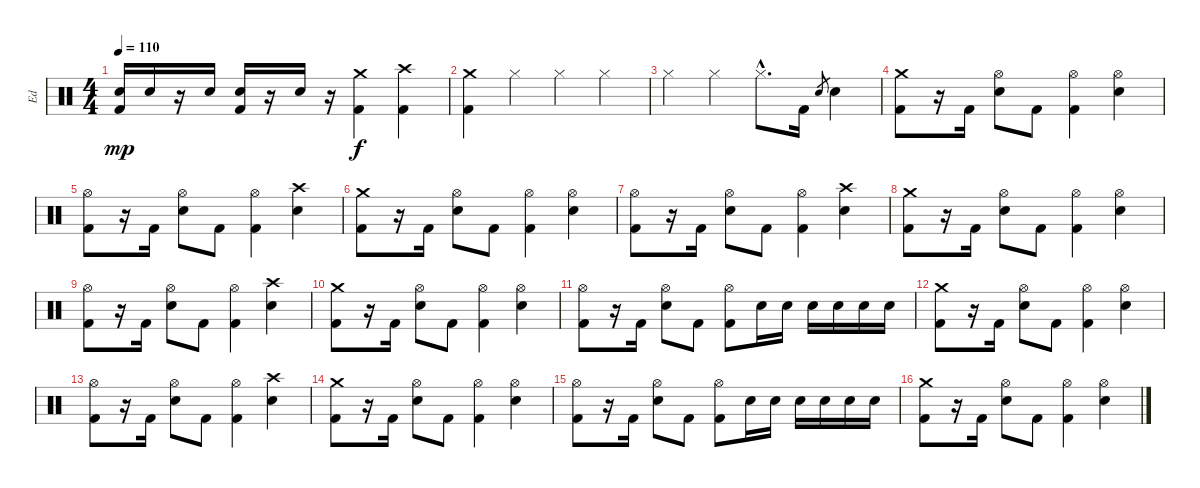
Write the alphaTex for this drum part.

\track ("Ed" "Ed") {instrument percussion}
\staff {score}
\articulation defaults
\ts (4 4)
\tempo 110
\clef neutral
\ks c
("Electric Snare (hit)" "Kick (hit) 2").16{dy mp} "Electric Snare (hit)".16 r.16 "Electric Snare (hit)".16 ("Electric Snare (hit)" "Kick (hit) 2").16 r.16 "Electric Snare (hit)".16 r.16 ("Crash medium (hit)" "Kick (hit) 2").4{dy f} ("Crash high (hit)" "Kick (hit) 2").4 |
("Crash medium (hit)" "Kick (hit) 2").4 "Hi-Hat (closed)".4 "Hi-Hat (closed)".4 "Hi-Hat (closed)".4 |
"Hi-Hat (closed)".4 "Hi-Hat (closed)".4 "Hi-Hat (closed)"{hac}.8{d} "Kick (hit) 2".16 "Electric Snare (hit)".8{gr} "Electric Snare (hit)".4 |
("Crash medium (hit)" "Kick (hit) 2").8 r.16 "Kick (hit) 2".16 ("Hi-Hat (open)" "Electric Snare (hit)").8 "Kick (hit) 2".8 ("Hi-Hat (open)" "Kick (hit) 2").4 ("Hi-Hat (open)" "Electric Snare (hit)").4 |
("Hi-Hat (open)" "Kick (hit) 2").8 r.16 "Kick (hit) 2".16 ("Hi-Hat (open)" "Electric Snare (hit)").8 "Kick (hit) 2".8 ("Hi-Hat (open)" "Kick (hit) 2").4 ("Crash high (hit)" "Electric Snare (hit)").4 |
("Crash medium (hit)" "Kick (hit) 2").8 r.16 "Kick (hit) 2".16 ("Hi-Hat (open)" "Electric Snare (hit)").8 "Kick (hit) 2".8 ("Hi-Hat (open)" "Kick (hit) 2").4 ("Hi-Hat (open)" "Electric Snare (hit)").4 |
("Hi-Hat (open)" "Kick (hit) 2").8 r.16 "Kick (hit) 2".16 ("Hi-Hat (open)" "Electric Snare (hit)").8 "Kick (hit) 2".8 ("Hi-Hat (open)" "Kick (hit) 2").4 ("Crash high (hit)" "Electric Snare (hit)").4 |
("Crash medium (hit)" "Kick (hit) 2").8 r.16 "Kick (hit) 2".16 ("Hi-Hat (open)" "Electric Snare (hit)").8 "Kick (hit) 2".8 ("Hi-Hat (open)" "Kick (hit) 2").4 ("Hi-Hat (open)" "Electric Snare (hit)").4 |
("Hi-Hat (open)" "Kick (hit) 2").8 r.16 "Kick (hit) 2".16 ("Hi-Hat (open)" "Electric Snare (hit)").8 "Kick (hit) 2".8 ("Hi-Hat (open)" "Kick (hit) 2").4 ("Crash high (hit)" "Electric Snare (hit)").4 |
("Crash medium (hit)" "Kick (hit) 2").8 r.16 "Kick (hit) 2".16 ("Hi-Hat (open)" "Electric Snare (hit)").8 "Kick (hit) 2".8 ("Hi-Hat (open)" "Kick (hit) 2").4 ("Hi-Hat (open)" "Electric Snare (hit)").4 |
("Hi-Hat (open)" "Kick (hit) 2").8 r.16 "Kick (hit) 2".16 ("Hi-Hat (open)" "Electric Snare (hit)").8 "Kick (hit) 2".8 ("Hi-Hat (open)" "Kick (hit) 2").8 "Electric Snare (hit)".16 "Electric Snare (hit)".16 "Electric Snare (hit)".16 "Electric Snare (hit)".16 "Electric Snare (hit)".16 "Electric Snare (hit)".16 |
("Crash medium (hit)" "Kick (hit) 2").8 r.16 "Kick (hit) 2".16 ("Hi-Hat (open)" "Electric Snare (hit)").8 "Kick (hit) 2".8 ("Hi-Hat (open)" "Kick (hit) 2").4 ("Hi-Hat (open)" "Electric Snare (hit)").4 |
("Hi-Hat (open)" "Kick (hit) 2").8 r.16 "Kick (hit) 2".16 ("Hi-Hat (open)" "Electric Snare (hit)").8 "Kick (hit) 2".8 ("Hi-Hat (open)" "Kick (hit) 2").4 ("Crash high (hit)" "Electric Snare (hit)").4 |
("Crash medium (hit)" "Kick (hit) 2").8 r.16 "Kick (hit) 2".16 ("Hi-Hat (open)" "Electric Snare (hit)").8 "Kick (hit) 2".8 ("Hi-Hat (open)" "Kick (hit) 2").4 ("Hi-Hat (open)" "Electric Snare (hit)").4 |
("Hi-Hat (open)" "Kick (hit) 2").8 r.16 "Kick (hit) 2".16 ("Hi-Hat (open)" "Electric Snare (hit)").8 "Kick (hit) 2".8 ("Hi-Hat (open)" "Kick (hit) 2").8 "Electric Snare (hit)".16 "Electric Snare (hit)".16 "Electric Snare (hit)".16 "Electric Snare (hit)".16 "Electric Snare (hit)".16 "Electric Snare (hit)".16 |
("Crash medium (hit)" "Kick (hit) 2").8 r.16 "Kick (hit) 2".16 ("Hi-Hat (open)" "Electric Snare (hit)").8 "Kick (hit) 2".8 ("Hi-Hat (open)" "Kick (hit) 2").4 ("Hi-Hat (open)" "Electric Snare (hit)").4
